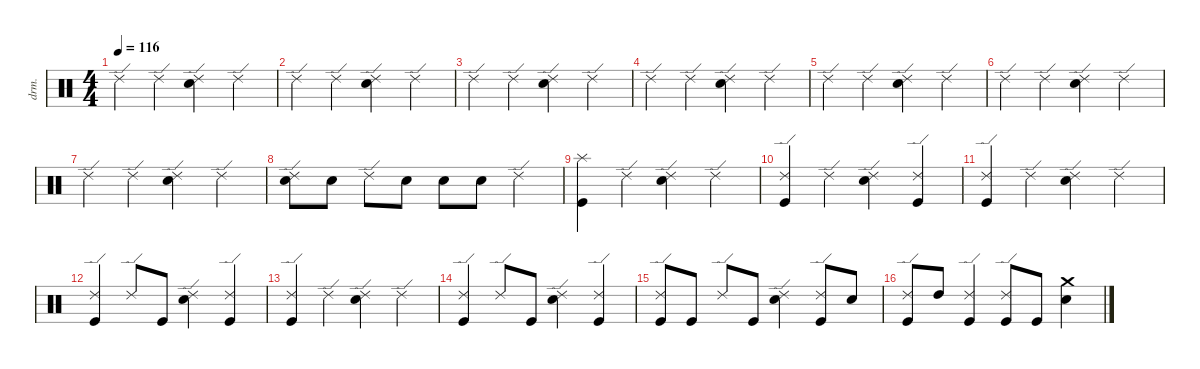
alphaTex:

\defaultSystemsLayout 4
\hideDynamics
\bracketExtendMode nobrackets
\otherSystemsTrackNameOrientation horizontal
\track ("Drum" "drm.") {instrument percussion}
\staff {score}
\articulation defaults
\ts (4 4)
\beaming (8 2 2 2 2)
\tempo 116
\clef neutral
\ks c "Ride (edge) 2".4{dy f beam Down} "Ride (edge) 2".4{beam Down}
("Snare (hit) 2" "Ride (edge) 2").4{beam Down} "Ride (edge) 2".4{beam Down} |
"Ride (edge) 2".4{beam Down} "Ride (edge) 2".4{beam Down} ("Snare (hit) 2" "Ride (edge) 2").4{beam Down} "Ride (edge) 2".4{beam Down} |
"Ride (edge) 2".4{beam Down} "Ride (edge) 2".4{beam Down} ("Snare (hit) 2" "Ride (edge) 2").4{beam Down} "Ride (edge) 2".4{beam Down} |
"Ride (edge) 2".4{beam Down} "Ride (edge) 2".4{beam Down} ("Snare (hit) 2" "Ride (edge) 2").4{beam Down} "Ride (edge) 2".4{beam Down} |
"Ride (edge) 2".4{beam Down} "Ride (edge) 2".4{beam Down} ("Snare (hit) 2" "Ride (edge) 2").4{beam Down} "Ride (edge) 2".4{beam Down} |
"Ride (edge) 2".4{beam Down} "Ride (edge) 2".4{beam Down} ("Snare (hit) 2" "Ride (edge) 2").4{beam Down} "Ride (edge) 2".4{beam Down} |
"Ride (edge) 2".4{beam Down} "Ride (edge) 2".4{beam Down} ("Snare (hit) 2" "Ride (edge) 2").4{beam Down} "Ride (edge) 2".4{beam Down} |
("Snare (hit) 2" "Ride (edge) 2").8{beam Down} "Snare (hit) 2".8{beam Down} "Ride (edge) 2".8{beam Down} "Snare (hit) 2".8{beam Down} "Snare (hit) 2".8{beam Down} "Snare (hit) 2".8{beam Down} "Ride (edge) 2".4{beam Down} |
("Kick (hit)" "Splash (hit)").4{beam Down} "Ride (edge) 2".4{beam Down} ("Snare (hit) 2" "Ride (edge) 2").4{beam Down} "Ride (edge) 2".4{beam Down} |
("Kick (hit)" "Ride (edge) 2").4{beam Up} "Ride (edge) 2".4{beam Down} ("Snare (hit) 2" "Ride (edge) 2").4{beam Down} ("Kick (hit)" "Ride (edge) 2").4{beam Up} |
("Kick (hit)" "Ride (edge) 2").4{beam Up} "Ride (edge) 2".4{beam Down} ("Snare (hit) 2" "Ride (edge) 2").4{beam Down} "Ride (edge) 2".4{beam Down} |
("Kick (hit)" "Ride (edge) 2").4{beam Up} "Ride (edge) 2".8{beam Up} "Kick (hit)".8{beam Up} ("Snare (hit) 2" "Ride (edge) 2").4{beam Down} ("Kick (hit)" "Ride (edge) 2").4{beam Up} |
("Kick (hit)" "Ride (edge) 2").4{beam Up} "Ride (edge) 2".4{beam Down} ("Snare (hit) 2" "Ride (edge) 2").4{beam Down} "Ride (edge) 2".4{beam Down} |
("Kick (hit)" "Ride (edge) 2").4{beam Up} "Ride (edge) 2".8{beam Up} "Kick (hit)".8{beam Up} ("Snare (hit) 2" "Ride (edge) 2").4{beam Down} ("Kick (hit)" "Ride (edge) 2").4{beam Up} |
("Kick (hit)" "Ride (edge) 2").8{beam Up} "Kick (hit)".8{beam Up} "Ride (edge) 2".8{beam Up} "Kick (hit)".8{beam Up} ("Snare (hit) 2" "Ride (edge) 2").4{beam Down} ("Kick (hit)" "Ride (edge) 2").8{beam Up} "Snare (hit) 2".8{beam Up} |
("Kick (hit)" "Ride (edge) 2").8{beam Up} "High Tom (hit)".8{beam Up} ("Kick (hit)" "Ride (edge) 2").4{beam Up} ("Kick (hit)" "Ride (edge) 2").8{beam Up} "Kick (hit)".8{beam Up} ("Snare (hit) 2" "Crash medium (hit)").4{beam Down}
